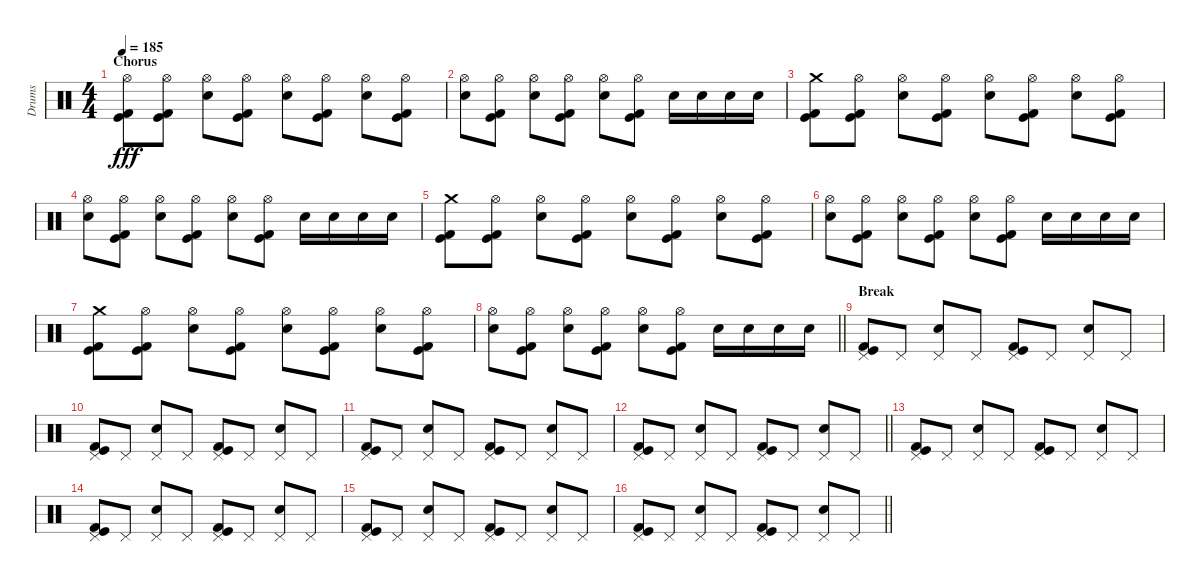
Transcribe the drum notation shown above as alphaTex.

\track ("Drums" "Drums") {instrument percussion}
\staff {score}
\articulation defaults
\ts (4 4)
\section ("" "Chorus")
\tempo 185
\clef neutral
\ks c
("Hi-Hat (open)" "Kick (hit)" "Kick (hit) 2").8{dy fff} ("Hi-Hat (open)" "Kick (hit)" "Kick (hit) 2").8 ("Hi-Hat (open)" "Snare (hit) 2").8 ("Hi-Hat (open)" "Kick (hit)" "Kick (hit) 2").8 ("Hi-Hat (open)" "Snare (hit) 2").8 ("Hi-Hat (open)" "Kick (hit)" "Kick (hit) 2").8 ("Hi-Hat (open)" "Snare (hit) 2").8 ("Hi-Hat (open)" "Kick (hit)" "Kick (hit) 2").8 |
("Hi-Hat (open)" "Snare (hit) 2").8 ("Hi-Hat (open)" "Kick (hit)" "Kick (hit) 2").8 ("Hi-Hat (open)" "Snare (hit) 2").8 ("Hi-Hat (open)" "Kick (hit)" "Kick (hit) 2").8 ("Hi-Hat (open)" "Snare (hit) 2").8 ("Hi-Hat (open)" "Kick (hit)" "Kick (hit) 2").8 "Snare (hit) 2".16 "Snare (hit) 2".16 "Snare (hit) 2".16 "Snare (hit) 2".16 |
("Crash medium (hit)" "Kick (hit)" "Kick (hit) 2").8 ("Hi-Hat (open)" "Kick (hit)" "Kick (hit) 2").8 ("Hi-Hat (open)" "Snare (hit) 2").8 ("Hi-Hat (open)" "Kick (hit)" "Kick (hit) 2").8 ("Hi-Hat (open)" "Snare (hit) 2").8 ("Hi-Hat (open)" "Kick (hit)" "Kick (hit) 2").8 ("Hi-Hat (open)" "Snare (hit) 2").8 ("Hi-Hat (open)" "Kick (hit)" "Kick (hit) 2").8 |
("Hi-Hat (open)" "Snare (hit) 2").8 ("Hi-Hat (open)" "Kick (hit)" "Kick (hit) 2").8 ("Hi-Hat (open)" "Snare (hit) 2").8 ("Hi-Hat (open)" "Kick (hit)" "Kick (hit) 2").8 ("Hi-Hat (open)" "Snare (hit) 2").8 ("Hi-Hat (open)" "Kick (hit)" "Kick (hit) 2").8 "Snare (hit) 2".16 "Snare (hit) 2".16 "Snare (hit) 2".16 "Snare (hit) 2".16 |
("Crash medium (hit)" "Kick (hit)" "Kick (hit) 2").8 ("Hi-Hat (open)" "Kick (hit)" "Kick (hit) 2").8 ("Hi-Hat (open)" "Snare (hit) 2").8 ("Hi-Hat (open)" "Kick (hit)" "Kick (hit) 2").8 ("Hi-Hat (open)" "Snare (hit) 2").8 ("Hi-Hat (open)" "Kick (hit)" "Kick (hit) 2").8 ("Hi-Hat (open)" "Snare (hit) 2").8 ("Hi-Hat (open)" "Kick (hit)" "Kick (hit) 2").8 |
("Hi-Hat (open)" "Snare (hit) 2").8 ("Hi-Hat (open)" "Kick (hit)" "Kick (hit) 2").8 ("Hi-Hat (open)" "Snare (hit) 2").8 ("Hi-Hat (open)" "Kick (hit)" "Kick (hit) 2").8 ("Hi-Hat (open)" "Snare (hit) 2").8 ("Hi-Hat (open)" "Kick (hit)" "Kick (hit) 2").8 "Snare (hit) 2".16 "Snare (hit) 2".16 "Snare (hit) 2".16 "Snare (hit) 2".16 |
("Crash medium (hit)" "Kick (hit)" "Kick (hit) 2").8 ("Hi-Hat (open)" "Kick (hit)" "Kick (hit) 2").8 ("Hi-Hat (open)" "Snare (hit) 2").8 ("Hi-Hat (open)" "Kick (hit)" "Kick (hit) 2").8 ("Hi-Hat (open)" "Snare (hit) 2").8 ("Hi-Hat (open)" "Kick (hit)" "Kick (hit) 2").8 ("Hi-Hat (open)" "Snare (hit) 2").8 ("Hi-Hat (open)" "Kick (hit)" "Kick (hit) 2").8 |
\barLineRight lightlight
("Hi-Hat (open)" "Snare (hit) 2").8 ("Hi-Hat (open)" "Kick (hit)" "Kick (hit) 2").8 ("Hi-Hat (open)" "Snare (hit) 2").8 ("Hi-Hat (open)" "Kick (hit)" "Kick (hit) 2").8 ("Hi-Hat (open)" "Snare (hit) 2").8 ("Hi-Hat (open)" "Kick (hit)" "Kick (hit) 2").8 "Snare (hit) 2".16 "Snare (hit) 2".16 "Snare (hit) 2".16 "Snare (hit) 2".16 |
\section ("" "Break")
("Pedal Hi-Hat (hit)" "Kick (hit)" "Kick (hit) 2").8 "Pedal Hi-Hat (hit)".8 ("Pedal Hi-Hat (hit)" "Snare (hit) 2").8 "Pedal Hi-Hat (hit)".8 ("Pedal Hi-Hat (hit)" "Kick (hit)" "Kick (hit) 2").8 "Pedal Hi-Hat (hit)".8 ("Pedal Hi-Hat (hit)" "Snare (hit) 2").8 "Pedal Hi-Hat (hit)".8 |
("Pedal Hi-Hat (hit)" "Kick (hit)" "Kick (hit) 2").8 "Pedal Hi-Hat (hit)".8 ("Pedal Hi-Hat (hit)" "Snare (hit) 2").8 "Pedal Hi-Hat (hit)".8 ("Pedal Hi-Hat (hit)" "Kick (hit)" "Kick (hit) 2").8 "Pedal Hi-Hat (hit)".8 ("Pedal Hi-Hat (hit)" "Snare (hit) 2").8 "Pedal Hi-Hat (hit)".8 |
("Pedal Hi-Hat (hit)" "Kick (hit)" "Kick (hit) 2").8 "Pedal Hi-Hat (hit)".8 ("Pedal Hi-Hat (hit)" "Snare (hit) 2").8 "Pedal Hi-Hat (hit)".8 ("Pedal Hi-Hat (hit)" "Kick (hit)" "Kick (hit) 2").8 "Pedal Hi-Hat (hit)".8 ("Pedal Hi-Hat (hit)" "Snare (hit) 2").8 "Pedal Hi-Hat (hit)".8 |
\barLineRight lightlight
("Pedal Hi-Hat (hit)" "Kick (hit)" "Kick (hit) 2").8 "Pedal Hi-Hat (hit)".8 ("Pedal Hi-Hat (hit)" "Snare (hit) 2").8 "Pedal Hi-Hat (hit)".8 ("Pedal Hi-Hat (hit)" "Kick (hit)" "Kick (hit) 2").8 "Pedal Hi-Hat (hit)".8 ("Pedal Hi-Hat (hit)" "Snare (hit) 2").8 "Pedal Hi-Hat (hit)".8 |
("Pedal Hi-Hat (hit)" "Kick (hit)" "Kick (hit) 2").8 "Pedal Hi-Hat (hit)".8 ("Pedal Hi-Hat (hit)" "Snare (hit) 2").8 "Pedal Hi-Hat (hit)".8 ("Pedal Hi-Hat (hit)" "Kick (hit)" "Kick (hit) 2").8 "Pedal Hi-Hat (hit)".8 ("Pedal Hi-Hat (hit)" "Snare (hit) 2").8 "Pedal Hi-Hat (hit)".8 |
("Pedal Hi-Hat (hit)" "Kick (hit)" "Kick (hit) 2").8 "Pedal Hi-Hat (hit)".8 ("Pedal Hi-Hat (hit)" "Snare (hit) 2").8 "Pedal Hi-Hat (hit)".8 ("Pedal Hi-Hat (hit)" "Kick (hit)" "Kick (hit) 2").8 "Pedal Hi-Hat (hit)".8 ("Pedal Hi-Hat (hit)" "Snare (hit) 2").8 "Pedal Hi-Hat (hit)".8 |
("Pedal Hi-Hat (hit)" "Kick (hit)" "Kick (hit) 2").8 "Pedal Hi-Hat (hit)".8 ("Pedal Hi-Hat (hit)" "Snare (hit) 2").8 "Pedal Hi-Hat (hit)".8 ("Pedal Hi-Hat (hit)" "Kick (hit)" "Kick (hit) 2").8 "Pedal Hi-Hat (hit)".8 ("Pedal Hi-Hat (hit)" "Snare (hit) 2").8 "Pedal Hi-Hat (hit)".8 |
\barLineRight lightlight
("Pedal Hi-Hat (hit)" "Kick (hit)" "Kick (hit) 2").8 "Pedal Hi-Hat (hit)".8 ("Pedal Hi-Hat (hit)" "Snare (hit) 2").8 "Pedal Hi-Hat (hit)".8 ("Pedal Hi-Hat (hit)" "Kick (hit)" "Kick (hit) 2").8 "Pedal Hi-Hat (hit)".8 ("Pedal Hi-Hat (hit)" "Snare (hit) 2").8 "Pedal Hi-Hat (hit)".8
